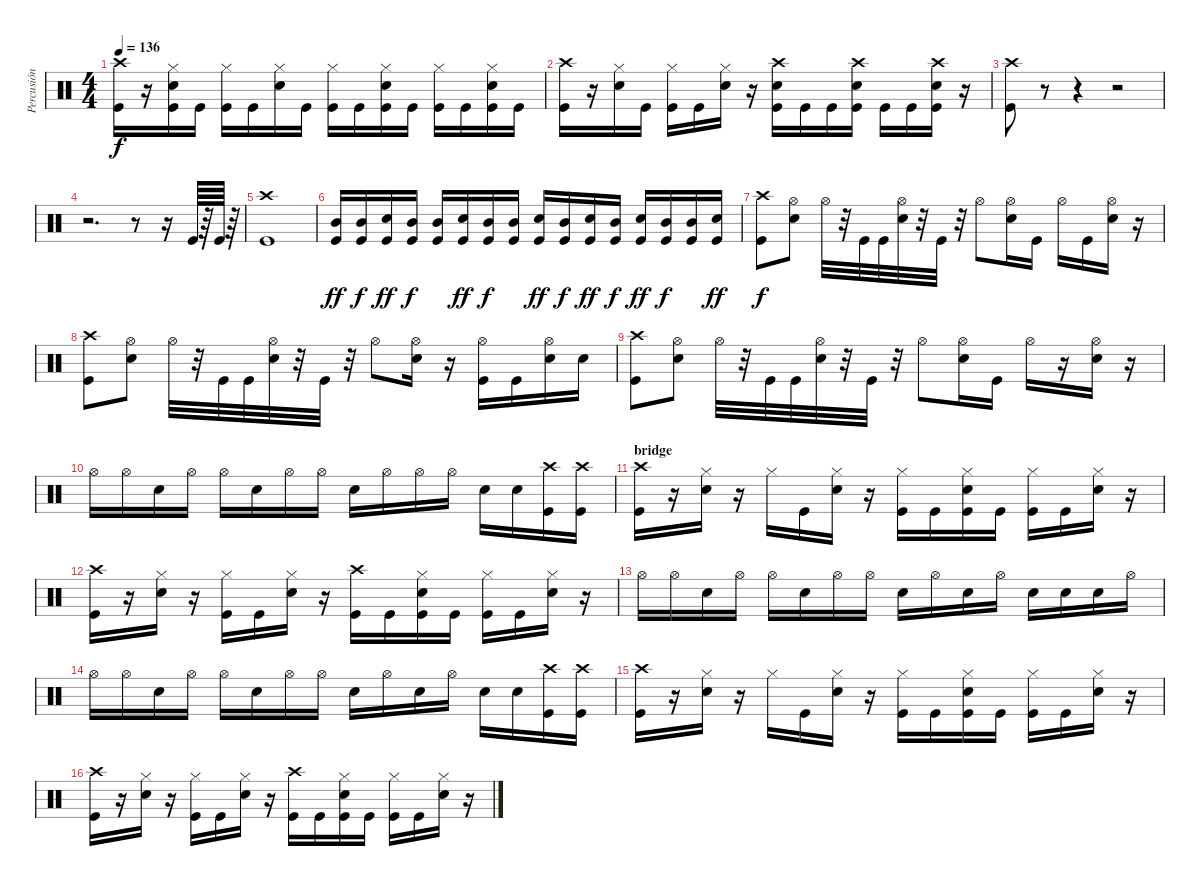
\track ("Percusión" "Percusión") {instrument percussion}
\staff {score}
\articulation defaults
\ts (4 4)
\tempo 136
\clef neutral
\ks c
("Crash high (hit)" "Kick (hit)").16{dy f} r.16 ("Hi-Hat (closed)" "Snare (hit) 2" "Kick (hit)").16 "Kick (hit)".16 ("Hi-Hat (closed)" "Kick (hit)").16 "Kick (hit)".16 ("Hi-Hat (closed)" "Snare (hit) 2").16 "Kick (hit)".16 ("Hi-Hat (closed)" "Kick (hit)").16 "Kick (hit)".16 ("Hi-Hat (closed)" "Snare (hit) 2" "Kick (hit)").16 "Kick (hit)".16 ("Hi-Hat (closed)" "Kick (hit)").16 "Kick (hit)".16 ("Hi-Hat (closed)" "Snare (hit) 2" "Kick (hit)").16 "Kick (hit)".16 |
("Crash high (hit)" "Kick (hit)").16 r.16 ("Hi-Hat (closed)" "Snare (hit) 2").16 "Kick (hit)".16 ("Hi-Hat (closed)" "Kick (hit)").16 "Kick (hit)".16 ("Hi-Hat (closed)" "Snare (hit) 2").16 r.16 ("Crash high (hit)" "Snare (hit) 2" "Kick (hit)").16 "Kick (hit)".16 "Kick (hit)".16 ("Crash high (hit)" "Snare (hit) 2" "Kick (hit)").16 "Kick (hit)".16 "Kick (hit)".16 ("Crash high (hit)" "Snare (hit) 2" "Kick (hit)").16 r.16 |
("Crash high (hit)" "Kick (hit)").8 r.8 r.4 r.2 |
r.2{d} r.8 r.16 "Kick (hit)".64 r.64 "Kick (hit)".64 r.64 |
("Crash high (hit)" "Kick (hit)").1 |
("Mid Tom (hit)" "Kick (hit)").16{dy ff} ("Mid Tom (hit)" "Kick (hit)").16{dy f} ("Electric Snare (hit)" "Kick (hit)").16{dy ff} ("Mid Tom (hit)" "Kick (hit)").16{dy f} ("Mid Tom (hit)" "Kick (hit)").16 ("Electric Snare (hit)" "Kick (hit)").16{dy ff} ("Mid Tom (hit)" "Kick (hit)").16{dy f} ("Mid Tom (hit)" "Kick (hit)").16 ("Electric Snare (hit)" "Kick (hit)").16{dy ff} ("Mid Tom (hit)" "Kick (hit)").16{dy f} ("Electric Snare (hit)" "Kick (hit)").16{dy ff} ("Mid Tom (hit)" "Kick (hit)").16{dy f} ("Electric Snare (hit)" "Kick (hit)").16{dy ff} ("Mid Tom (hit)" "Kick (hit)").16{dy f} ("Mid Tom (hit)" "Kick (hit)").16 ("Electric Snare (hit)" "Kick (hit)").16{dy ff} |
("Crash high (hit)" "Kick (hit)").8{dy f} ("Hi-Hat (open)" "Snare (hit) 2").8 "Hi-Hat (open)".32 r.32 "Kick (hit)".32 "Kick (hit)".32 ("Hi-Hat (open)" "Snare (hit) 2").32 r.32 "Kick (hit)".32 r.32 "Hi-Hat (open)".8 ("Hi-Hat (open)" "Snare (hit) 2").16 "Kick (hit)".16 "Hi-Hat (open)".16 "Kick (hit)".16 ("Hi-Hat (open)" "Snare (hit) 2").16 r.16 |
("Crash high (hit)" "Kick (hit)").8 ("Hi-Hat (open)" "Snare (hit) 2").8 "Hi-Hat (open)".32 r.32 "Kick (hit)".32 "Kick (hit)".32 ("Hi-Hat (open)" "Snare (hit) 2").32 r.32 "Kick (hit)".32 r.32 "Hi-Hat (open)".8 ("Hi-Hat (open)" "Snare (hit) 2").16 r.16 ("Hi-Hat (open)" "Kick (hit)").16 "Kick (hit)".16 ("Hi-Hat (open)" "Snare (hit) 2").16 "Snare (hit) 2".16 |
("Crash high (hit)" "Kick (hit)").8 ("Hi-Hat (open)" "Snare (hit) 2").8 "Hi-Hat (open)".32 r.32 "Kick (hit)".32 "Kick (hit)".32 ("Hi-Hat (open)" "Snare (hit) 2").32 r.32 "Kick (hit)".32 r.32 "Hi-Hat (open)".8 ("Hi-Hat (open)" "Snare (hit) 2").16 "Kick (hit)".16 "Hi-Hat (open)".16 r.16 ("Hi-Hat (open)" "Snare (hit) 2").16 r.16 |
"Hi-Hat (open)".16 "Hi-Hat (open)".16 "Snare (hit) 2".16 "Hi-Hat (open)".16 "Hi-Hat (open)".16 "Snare (hit) 2".16 "Hi-Hat (open)".16 "Hi-Hat (open)".16 "Snare (hit) 2".16 "Hi-Hat (open)".16 "Hi-Hat (open)".16 "Hi-Hat (open)".16 "Snare (hit) 2".16 "Snare (hit) 2".16 ("Crash high (hit)" "Kick (hit)").16 ("Crash high (hit)" "Kick (hit)").16 |
\section ("" "bridge")
("Crash high (hit)" "Kick (hit)").16 r.16 ("Hi-Hat (closed)" "Snare (hit) 2").16 r.16 "Hi-Hat (closed)".16 "Kick (hit)".16 ("Hi-Hat (closed)" "Snare (hit) 2").16 r.16 ("Hi-Hat (closed)" "Kick (hit)").16 "Kick (hit)".16 ("Hi-Hat (closed)" "Snare (hit) 2" "Kick (hit)").16 "Kick (hit)".16 ("Hi-Hat (closed)" "Kick (hit)").16 "Kick (hit)".16 ("Hi-Hat (closed)" "Snare (hit) 2").16 r.16 |
("Crash high (hit)" "Kick (hit)").16 r.16 ("Hi-Hat (closed)" "Snare (hit) 2").16 r.16 ("Hi-Hat (closed)" "Kick (hit)").16 "Kick (hit)".16 ("Hi-Hat (closed)" "Snare (hit) 2").16 r.16 ("Crash high (hit)" "Kick (hit)").16 "Kick (hit)".16 ("Hi-Hat (closed)" "Snare (hit) 2" "Kick (hit)").16 "Kick (hit)".16 ("Hi-Hat (closed)" "Kick (hit)").16 "Kick (hit)".16 ("Hi-Hat (closed)" "Snare (hit) 2").16 r.16 |
"Hi-Hat (open)".16 "Hi-Hat (open)".16 "Snare (hit) 2".16 "Hi-Hat (open)".16 "Hi-Hat (open)".16 "Snare (hit) 2".16 "Hi-Hat (open)".16 "Hi-Hat (open)".16 "Snare (hit) 2".16 "Hi-Hat (open)".16 "Snare (hit) 2".16 "Hi-Hat (open)".16 "Snare (hit) 2".16 "Snare (hit) 2".16 "Snare (hit) 2".16 "Hi-Hat (open)".16 |
"Hi-Hat (open)".16 "Hi-Hat (open)".16 "Snare (hit) 2".16 "Hi-Hat (open)".16 "Hi-Hat (open)".16 "Snare (hit) 2".16 "Hi-Hat (open)".16 "Hi-Hat (open)".16 "Snare (hit) 2".16 "Hi-Hat (open)".16 "Snare (hit) 2".16 "Hi-Hat (open)".16 "Snare (hit) 2".16 "Snare (hit) 2".16 ("Crash high (hit)" "Kick (hit)").16 ("Crash high (hit)" "Kick (hit)").16 |
("Crash high (hit)" "Kick (hit)").16 r.16 ("Hi-Hat (closed)" "Snare (hit) 2").16 r.16 "Hi-Hat (closed)".16 "Kick (hit)".16 ("Hi-Hat (closed)" "Snare (hit) 2").16 r.16 ("Hi-Hat (closed)" "Kick (hit)").16 "Kick (hit)".16 ("Hi-Hat (closed)" "Snare (hit) 2" "Kick (hit)").16 "Kick (hit)".16 ("Hi-Hat (closed)" "Kick (hit)").16 "Kick (hit)".16 ("Hi-Hat (closed)" "Snare (hit) 2").16 r.16 |
("Crash high (hit)" "Kick (hit)").16 r.16 ("Hi-Hat (closed)" "Snare (hit) 2").16 r.16 ("Hi-Hat (closed)" "Kick (hit)").16 "Kick (hit)".16 ("Hi-Hat (closed)" "Snare (hit) 2").16 r.16 ("Crash high (hit)" "Kick (hit)").16 "Kick (hit)".16 ("Hi-Hat (closed)" "Snare (hit) 2" "Kick (hit)").16 "Kick (hit)".16 ("Hi-Hat (closed)" "Kick (hit)").16 "Kick (hit)".16 ("Hi-Hat (closed)" "Snare (hit) 2").16 r.16
